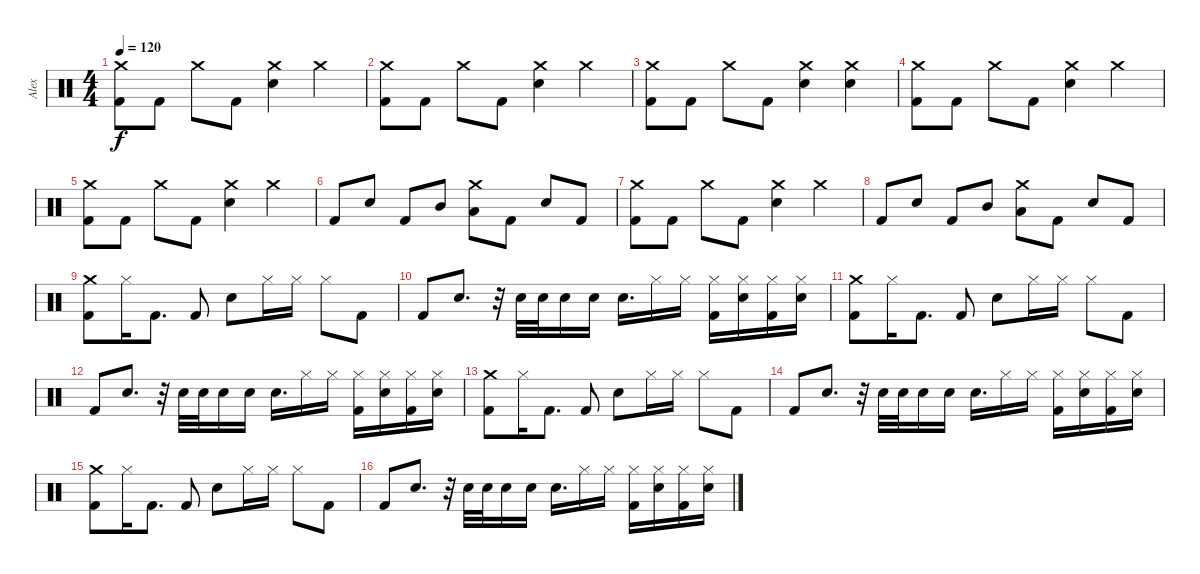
\track ("Alex" "Alex") {instrument percussion}
\staff {score}
\articulation defaults
\ts (4 4)
\tempo 120
\clef neutral
\ks c
("Crash medium (hit)" "Kick (hit) 2").8{dy f} "Kick (hit) 2".8 "Crash medium (hit)".8 "Kick (hit) 2".8 ("Crash medium (hit)" "Snare (hit) 2").4 "Crash medium (hit)".4 |
("Crash medium (hit)" "Kick (hit) 2").8 "Kick (hit) 2".8 "Crash medium (hit)".8 "Kick (hit) 2".8 ("Crash medium (hit)" "Snare (hit) 2").4 "Crash medium (hit)".4 |
("Crash medium (hit)" "Kick (hit) 2").8 "Kick (hit) 2".8 "Crash medium (hit)".8 "Kick (hit) 2".8 ("Crash medium (hit)" "Snare (hit) 2").4 ("Crash medium (hit)" "Snare (hit) 2").4 |
("Crash medium (hit)" "Kick (hit) 2").8 "Kick (hit) 2".8 "Crash medium (hit)".8 "Kick (hit) 2".8 ("Crash medium (hit)" "Snare (hit) 2").4 "Crash medium (hit)".4 |
("Crash medium (hit)" "Kick (hit) 2").8 "Kick (hit) 2".8 "Crash medium (hit)".8 "Kick (hit) 2".8 ("Crash medium (hit)" "Snare (hit) 2").4 "Crash medium (hit)".4 |
"Kick (hit) 2".8 "Snare (hit) 2".8 "Kick (hit) 2".8 "Mid Tom (hit)".8 ("Crash medium (hit)" "Low Tom (hit)").8 "Kick (hit) 2".8 "Snare (hit) 2".8 "Kick (hit) 2".8 |
("Crash medium (hit)" "Kick (hit) 2").8 "Kick (hit) 2".8 "Crash medium (hit)".8 "Kick (hit) 2".8 ("Crash medium (hit)" "Snare (hit) 2").4 "Crash medium (hit)".4 |
"Kick (hit) 2".8 "Snare (hit) 2".8 "Kick (hit) 2".8 "Mid Tom (hit)".8 ("Crash medium (hit)" "Low Tom (hit)").8 "Kick (hit) 2".8 "Snare (hit) 2".8 "Kick (hit) 2".8 |
("Crash medium (hit)" "Kick (hit) 2").8 "Hi-Hat (closed)".16 "Kick (hit) 2".8{d} "Kick (hit) 2".8 "Snare (hit) 2".8 "Hi-Hat (closed)".16 "Hi-Hat (closed)".16 "Hi-Hat (closed)".8 "Kick (hit) 2".8 |
"Kick (hit) 2".8 "Snare (hit) 2".8{d} r.32 "Snare (hit) 2".32 "Snare (hit) 2".32 "Snare (hit) 2".16 "Snare (hit) 2".16 "Snare (hit) 2".16{d} "Hi-Hat (closed)".16 "Hi-Hat (closed)".16 ("Hi-Hat (closed)" "Kick (hit) 2").16 ("Hi-Hat (closed)" "Snare (hit) 2").16 ("Hi-Hat (closed)" "Kick (hit) 2").16 ("Hi-Hat (closed)" "Snare (hit) 2").16 |
("Crash medium (hit)" "Kick (hit) 2").8 "Hi-Hat (closed)".16 "Kick (hit) 2".8{d} "Kick (hit) 2".8 "Snare (hit) 2".8 "Hi-Hat (closed)".16 "Hi-Hat (closed)".16 "Hi-Hat (closed)".8 "Kick (hit) 2".8 |
"Kick (hit) 2".8 "Snare (hit) 2".8{d} r.32 "Snare (hit) 2".32 "Snare (hit) 2".32 "Snare (hit) 2".16 "Snare (hit) 2".16 "Snare (hit) 2".16{d} "Hi-Hat (closed)".16 "Hi-Hat (closed)".16 ("Hi-Hat (closed)" "Kick (hit) 2").16 ("Hi-Hat (closed)" "Snare (hit) 2").16 ("Hi-Hat (closed)" "Kick (hit) 2").16 ("Hi-Hat (closed)" "Snare (hit) 2").16 |
("Crash medium (hit)" "Kick (hit) 2").8 "Hi-Hat (closed)".16 "Kick (hit) 2".8{d} "Kick (hit) 2".8 "Snare (hit) 2".8 "Hi-Hat (closed)".16 "Hi-Hat (closed)".16 "Hi-Hat (closed)".8 "Kick (hit) 2".8 |
"Kick (hit) 2".8 "Snare (hit) 2".8{d} r.32 "Snare (hit) 2".32 "Snare (hit) 2".32 "Snare (hit) 2".16 "Snare (hit) 2".16 "Snare (hit) 2".16{d} "Hi-Hat (closed)".16 "Hi-Hat (closed)".16 ("Hi-Hat (closed)" "Kick (hit) 2").16 ("Hi-Hat (closed)" "Snare (hit) 2").16 ("Hi-Hat (closed)" "Kick (hit) 2").16 ("Hi-Hat (closed)" "Snare (hit) 2").16 |
("Crash medium (hit)" "Kick (hit) 2").8 "Hi-Hat (closed)".16 "Kick (hit) 2".8{d} "Kick (hit) 2".8 "Snare (hit) 2".8 "Hi-Hat (closed)".16 "Hi-Hat (closed)".16 "Hi-Hat (closed)".8 "Kick (hit) 2".8 |
"Kick (hit) 2".8 "Snare (hit) 2".8{d} r.32 "Snare (hit) 2".32 "Snare (hit) 2".32 "Snare (hit) 2".16 "Snare (hit) 2".16 "Snare (hit) 2".16{d} "Hi-Hat (closed)".16 "Hi-Hat (closed)".16 ("Hi-Hat (closed)" "Kick (hit) 2").16 ("Hi-Hat (closed)" "Snare (hit) 2").16 ("Hi-Hat (closed)" "Kick (hit) 2").16 ("Hi-Hat (closed)" "Snare (hit) 2").16
